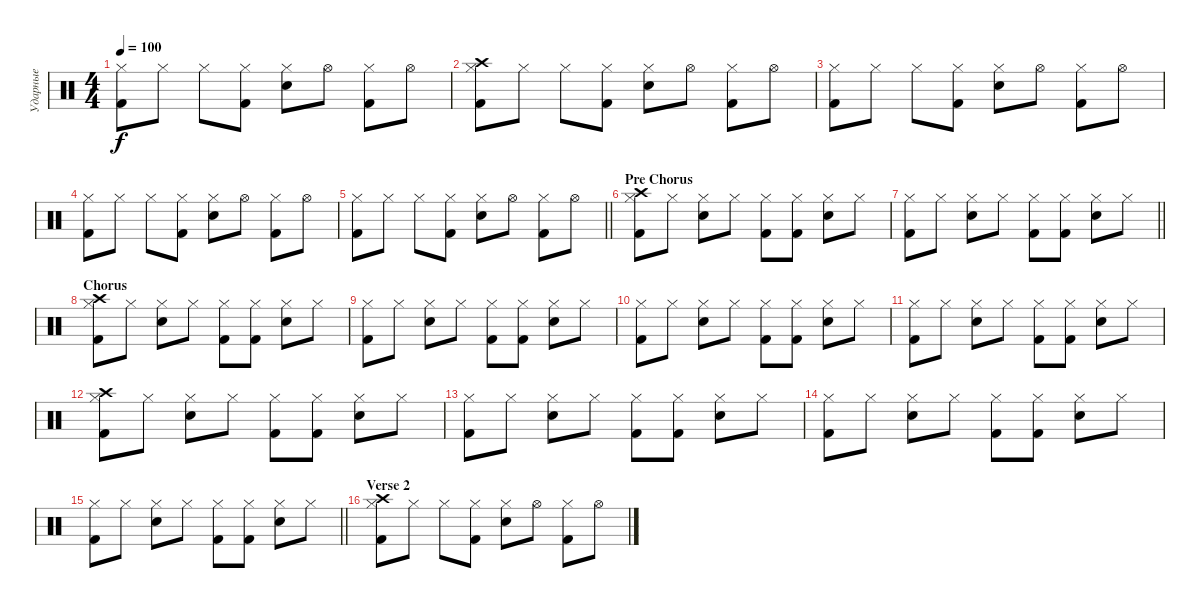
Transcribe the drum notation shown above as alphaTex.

\track ("Ударные" "Ударные") {instrument percussion}
\staff {score}
\articulation defaults
\ts (4 4)
\tempo 100
\clef neutral
\ks c
("Hi-Hat (closed)" "Kick (hit) 2").8{dy f} "Hi-Hat (closed)".8 "Hi-Hat (closed)".8 ("Hi-Hat (closed)" "Kick (hit) 2").8 ("Hi-Hat (closed)" "Electric Snare (hit)").8 "Hi-Hat (open)".8 ("Hi-Hat (closed)" "Kick (hit) 2").8 "Hi-Hat (open)".8 |
("Crash high (hit)" "Hi-Hat (closed)" "Kick (hit) 2").8 "Hi-Hat (closed)".8 "Hi-Hat (closed)".8 ("Hi-Hat (closed)" "Kick (hit) 2").8 ("Hi-Hat (closed)" "Electric Snare (hit)").8 "Hi-Hat (open)".8 ("Hi-Hat (closed)" "Kick (hit) 2").8 "Hi-Hat (open)".8 |
("Hi-Hat (closed)" "Kick (hit) 2").8 "Hi-Hat (closed)".8 "Hi-Hat (closed)".8 ("Hi-Hat (closed)" "Kick (hit) 2").8 ("Hi-Hat (closed)" "Electric Snare (hit)").8 "Hi-Hat (open)".8 ("Hi-Hat (closed)" "Kick (hit) 2").8 "Hi-Hat (open)".8 |
("Hi-Hat (closed)" "Kick (hit) 2").8 "Hi-Hat (closed)".8 "Hi-Hat (closed)".8 ("Hi-Hat (closed)" "Kick (hit) 2").8 ("Hi-Hat (closed)" "Electric Snare (hit)").8 "Hi-Hat (open)".8 ("Hi-Hat (closed)" "Kick (hit) 2").8 "Hi-Hat (open)".8 |
\barLineRight lightlight
("Hi-Hat (closed)" "Kick (hit) 2").8 "Hi-Hat (closed)".8 "Hi-Hat (closed)".8 ("Hi-Hat (closed)" "Kick (hit) 2").8 ("Hi-Hat (closed)" "Electric Snare (hit)").8 "Hi-Hat (open)".8 ("Hi-Hat (closed)" "Kick (hit) 2").8 "Hi-Hat (open)".8 |
\section ("" "Pre Chorus")
("Hi-Hat (closed)" "Kick (hit) 2" "Crash high (hit)").8 "Hi-Hat (closed)".8 ("Hi-Hat (closed)" "Electric Snare (hit)").8 "Hi-Hat (closed)".8 ("Hi-Hat (closed)" "Kick (hit) 2").8 ("Hi-Hat (closed)" "Kick (hit) 2").8 ("Hi-Hat (closed)" "Electric Snare (hit)").8 "Hi-Hat (closed)".8 |
\barLineRight lightlight
("Hi-Hat (closed)" "Kick (hit) 2").8 "Hi-Hat (closed)".8 ("Hi-Hat (closed)" "Electric Snare (hit)").8 "Hi-Hat (closed)".8 ("Hi-Hat (closed)" "Kick (hit) 2").8 ("Hi-Hat (closed)" "Kick (hit) 2").8 ("Hi-Hat (closed)" "Electric Snare (hit)").8 "Hi-Hat (closed)".8 |
\section ("" "Chorus")
("Hi-Hat (closed)" "Crash high (hit)" "Kick (hit) 2").8 "Hi-Hat (closed)".8 ("Hi-Hat (closed)" "Electric Snare (hit)").8 "Hi-Hat (closed)".8 ("Hi-Hat (closed)" "Kick (hit) 2").8 ("Hi-Hat (closed)" "Kick (hit) 2").8 ("Hi-Hat (closed)" "Electric Snare (hit)").8 "Hi-Hat (closed)".8 |
("Hi-Hat (closed)" "Kick (hit) 2").8 "Hi-Hat (closed)".8 ("Hi-Hat (closed)" "Electric Snare (hit)").8 "Hi-Hat (closed)".8 ("Hi-Hat (closed)" "Kick (hit) 2").8 ("Hi-Hat (closed)" "Kick (hit) 2").8 ("Hi-Hat (closed)" "Electric Snare (hit)").8 "Hi-Hat (closed)".8 |
("Hi-Hat (closed)" "Kick (hit) 2").8 "Hi-Hat (closed)".8 ("Hi-Hat (closed)" "Electric Snare (hit)").8 "Hi-Hat (closed)".8 ("Hi-Hat (closed)" "Kick (hit) 2").8 ("Hi-Hat (closed)" "Kick (hit) 2").8 ("Hi-Hat (closed)" "Electric Snare (hit)").8 "Hi-Hat (closed)".8 |
("Hi-Hat (closed)" "Kick (hit) 2").8 "Hi-Hat (closed)".8 ("Hi-Hat (closed)" "Electric Snare (hit)").8 "Hi-Hat (closed)".8 ("Hi-Hat (closed)" "Kick (hit) 2").8 ("Hi-Hat (closed)" "Kick (hit) 2").8 ("Hi-Hat (closed)" "Electric Snare (hit)").8 "Hi-Hat (closed)".8 |
("Hi-Hat (closed)" "Crash high (hit)" "Kick (hit) 2").8 "Hi-Hat (closed)".8 ("Hi-Hat (closed)" "Electric Snare (hit)").8 "Hi-Hat (closed)".8 ("Hi-Hat (closed)" "Kick (hit) 2").8 ("Hi-Hat (closed)" "Kick (hit) 2").8 ("Hi-Hat (closed)" "Electric Snare (hit)").8 "Hi-Hat (closed)".8 |
("Hi-Hat (closed)" "Kick (hit) 2").8 "Hi-Hat (closed)".8 ("Hi-Hat (closed)" "Electric Snare (hit)").8 "Hi-Hat (closed)".8 ("Hi-Hat (closed)" "Kick (hit) 2").8 ("Hi-Hat (closed)" "Kick (hit) 2").8 ("Hi-Hat (closed)" "Electric Snare (hit)").8 "Hi-Hat (closed)".8 |
("Hi-Hat (closed)" "Kick (hit) 2").8 "Hi-Hat (closed)".8 ("Hi-Hat (closed)" "Electric Snare (hit)").8 "Hi-Hat (closed)".8 ("Hi-Hat (closed)" "Kick (hit) 2").8 ("Hi-Hat (closed)" "Kick (hit) 2").8 ("Hi-Hat (closed)" "Electric Snare (hit)").8 "Hi-Hat (closed)".8 |
\barLineRight lightlight
("Hi-Hat (closed)" "Kick (hit) 2").8 "Hi-Hat (closed)".8 ("Hi-Hat (closed)" "Electric Snare (hit)").8 "Hi-Hat (closed)".8 ("Hi-Hat (closed)" "Kick (hit) 2").8 ("Hi-Hat (closed)" "Kick (hit) 2").8 ("Hi-Hat (closed)" "Electric Snare (hit)").8 "Hi-Hat (closed)".8 |
\section ("" "Verse 2")
("Crash high (hit)" "Hi-Hat (closed)" "Kick (hit) 2").8 "Hi-Hat (closed)".8 "Hi-Hat (closed)".8 ("Hi-Hat (closed)" "Kick (hit) 2").8 ("Hi-Hat (closed)" "Electric Snare (hit)").8 "Hi-Hat (open)".8 ("Hi-Hat (closed)" "Kick (hit) 2").8 "Hi-Hat (open)".8
